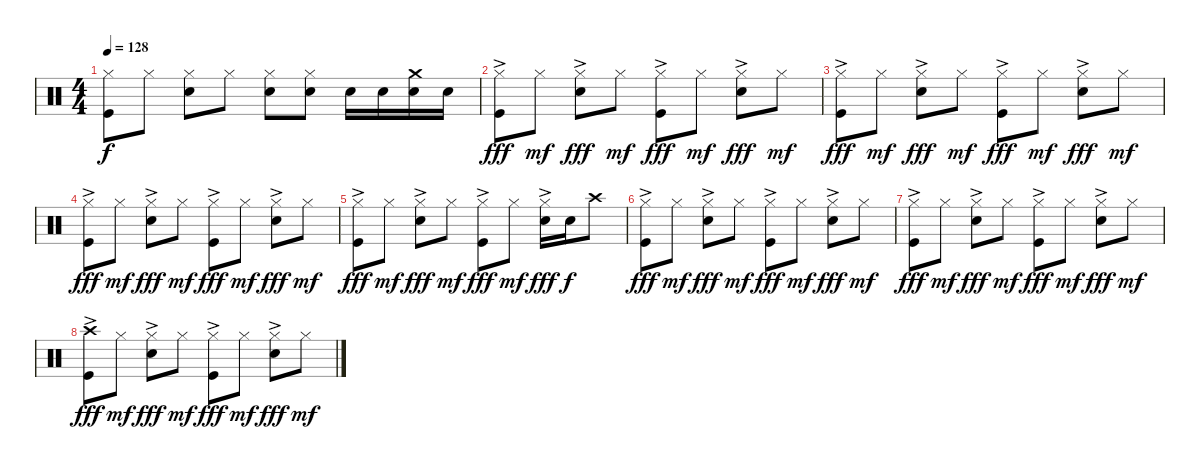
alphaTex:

\track "" {instrument percussion}
\staff {score}
\articulation defaults
\ts (4 4)
\tempo 128
\clef neutral
\ks c
("Hi-Hat (closed)" "Kick (hit)").8{dy f} "Hi-Hat (closed)".8 ("Hi-Hat (closed)" "Electric Snare (hit)").8 "Hi-Hat (closed)".8 ("Hi-Hat (closed)" "Electric Snare (hit)").8 ("Hi-Hat (closed)" "Electric Snare (hit)").8 "Electric Snare (hit)".16 "Electric Snare (hit)".16 ("Crash medium (hit)" "Electric Snare (hit)").16 "Electric Snare (hit)".16 |
("Hi-Hat (closed)"{ac} "Kick (hit)").8{dy fff} "Hi-Hat (closed)".8{dy mf} ("Hi-Hat (closed)"{ac} "Electric Snare (hit)").8{dy fff} "Hi-Hat (closed)".8{dy mf} ("Hi-Hat (closed)"{ac} "Kick (hit)").8{dy fff} "Hi-Hat (closed)".8{dy mf} ("Hi-Hat (closed)"{ac} "Electric Snare (hit)").8{dy fff} "Hi-Hat (closed)".8{dy mf} |
("Hi-Hat (closed)"{ac} "Kick (hit)").8{dy fff} "Hi-Hat (closed)".8{dy mf} ("Hi-Hat (closed)"{ac} "Electric Snare (hit)").8{dy fff} "Hi-Hat (closed)".8{dy mf} ("Hi-Hat (closed)"{ac} "Kick (hit)").8{dy fff} "Hi-Hat (closed)".8{dy mf} ("Hi-Hat (closed)"{ac} "Electric Snare (hit)").8{dy fff} "Hi-Hat (closed)".8{dy mf} |
("Hi-Hat (closed)"{ac} "Kick (hit)").8{dy fff} "Hi-Hat (closed)".8{dy mf} ("Hi-Hat (closed)"{ac} "Electric Snare (hit)").8{dy fff} "Hi-Hat (closed)".8{dy mf} ("Hi-Hat (closed)"{ac} "Kick (hit)").8{dy fff} "Hi-Hat (closed)".8{dy mf} ("Hi-Hat (closed)"{ac} "Electric Snare (hit)").8{dy fff} "Hi-Hat (closed)".8{dy mf} |
("Hi-Hat (closed)"{ac} "Kick (hit)").8{dy fff} "Hi-Hat (closed)".8{dy mf} ("Hi-Hat (closed)"{ac} "Electric Snare (hit)").8{dy fff} "Hi-Hat (closed)".8{dy mf} ("Hi-Hat (closed)"{ac} "Kick (hit)").8{dy fff} "Hi-Hat (closed)".8{dy mf} ("Hi-Hat (closed)"{ac} "Electric Snare (hit)").16{dy fff} "Electric Snare (hit)".16{dy f} "Crash high (hit)".8 |
("Hi-Hat (closed)"{ac} "Kick (hit)").8{dy fff} "Hi-Hat (closed)".8{dy mf} ("Hi-Hat (closed)"{ac} "Electric Snare (hit)").8{dy fff} "Hi-Hat (closed)".8{dy mf} ("Hi-Hat (closed)"{ac} "Kick (hit)").8{dy fff} "Hi-Hat (closed)".8{dy mf} ("Hi-Hat (closed)"{ac} "Electric Snare (hit)").8{dy fff} "Hi-Hat (closed)".8{dy mf} |
("Hi-Hat (closed)"{ac} "Kick (hit)").8{dy fff} "Hi-Hat (closed)".8{dy mf} ("Hi-Hat (closed)"{ac} "Electric Snare (hit)").8{dy fff} "Hi-Hat (closed)".8{dy mf} ("Hi-Hat (closed)"{ac} "Kick (hit)").8{dy fff} "Hi-Hat (closed)".8{dy mf} ("Hi-Hat (closed)"{ac} "Electric Snare (hit)").8{dy fff} "Hi-Hat (closed)".8{dy mf} |
("Crash high (hit)"{ac} "Kick (hit)").8{dy fff} "Hi-Hat (closed)".8{dy mf} ("Hi-Hat (closed)"{ac} "Electric Snare (hit)").8{dy fff} "Hi-Hat (closed)".8{dy mf} ("Hi-Hat (closed)"{ac} "Kick (hit)").8{dy fff} "Hi-Hat (closed)".8{dy mf} ("Hi-Hat (closed)"{ac} "Electric Snare (hit)").8{dy fff} "Hi-Hat (closed)".8{dy mf}
